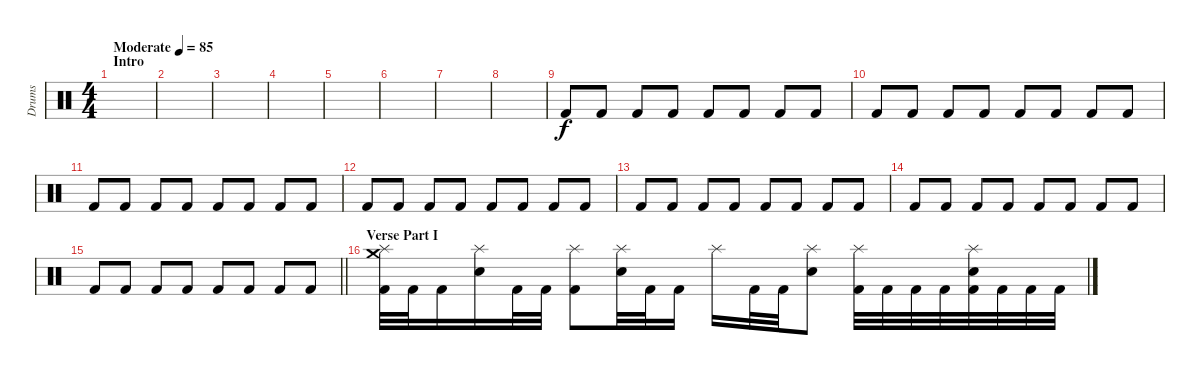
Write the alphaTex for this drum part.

\track ("Drums" "Drums") {instrument percussion}
\staff {score}
\articulation defaults
\ts (4 4)
\section ("" "Intro")
\tempo (85 "Moderate")
\clef neutral
\ks c
|
|
|
|
|
|
|
|
"Kick (hit) 2".8{volume 13} "Kick (hit) 2".8 "Kick (hit) 2".8 "Kick (hit) 2".8 "Kick (hit) 2".8 "Kick (hit) 2".8 "Kick (hit) 2".8 "Kick (hit) 2".8 |
"Kick (hit) 2".8 "Kick (hit) 2".8 "Kick (hit) 2".8 "Kick (hit) 2".8 "Kick (hit) 2".8 "Kick (hit) 2".8 "Kick (hit) 2".8 "Kick (hit) 2".8 |
"Kick (hit) 2".8 "Kick (hit) 2".8 "Kick (hit) 2".8 "Kick (hit) 2".8 "Kick (hit) 2".8 "Kick (hit) 2".8 "Kick (hit) 2".8 "Kick (hit) 2".8 |
"Kick (hit) 2".8 "Kick (hit) 2".8 "Kick (hit) 2".8 "Kick (hit) 2".8 "Kick (hit) 2".8 "Kick (hit) 2".8 "Kick (hit) 2".8 "Kick (hit) 2".8 |
"Kick (hit) 2".8 "Kick (hit) 2".8 "Kick (hit) 2".8 "Kick (hit) 2".8 "Kick (hit) 2".8 "Kick (hit) 2".8 "Kick (hit) 2".8 "Kick (hit) 2".8 |
"Kick (hit) 2".8 "Kick (hit) 2".8 "Kick (hit) 2".8 "Kick (hit) 2".8 "Kick (hit) 2".8 "Kick (hit) 2".8 "Kick (hit) 2".8 "Kick (hit) 2".8 |
\barLineRight lightlight "Kick (hit) 2".8 "Kick (hit) 2".8 "Kick (hit) 2".8 "Kick (hit) 2".8 "Kick (hit) 2".8 "Kick (hit) 2".8 "Kick (hit) 2".8 "Kick (hit) 2".8
|
\section ("" "Verse Part I")
("Crash medium (hit)" "Splash (hit)" "Kick (hit) 2").32{volume 16} "Kick (hit) 2".32 "Kick (hit) 2".16 ("Splash (hit)" "Electric Snare (hit)").16 "Kick (hit) 2".32 "Kick (hit) 2".32 ("Splash (hit)" "Kick (hit) 2").8 ("Splash (hit)" "Electric Snare (hit)").32 "Kick (hit) 2".32 "Kick (hit) 2".16 "Splash (hit)".16 "Kick (hit) 2".32 "Kick (hit) 2".32 ("Splash (hit)" "Electric Snare (hit)").8 ("Splash (hit)" "Kick (hit) 2").32 "Kick (hit) 2".32 "Kick (hit) 2".32 "Kick (hit) 2".32 ("Splash (hit)" "Electric Snare (hit)" "Kick (hit) 2").32 "Kick (hit) 2".32 "Kick (hit) 2".32 "Kick (hit) 2".32
